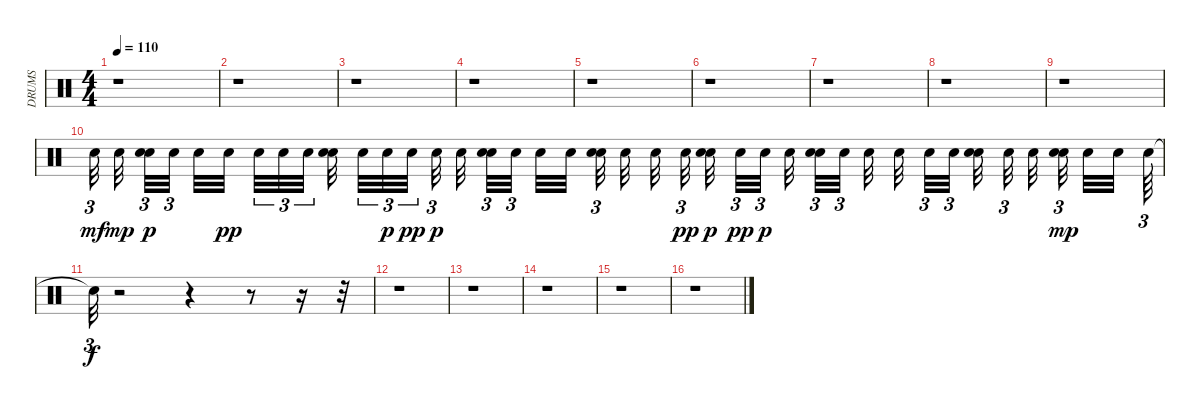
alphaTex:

\track ("DRUMS" "DRUMS") {instrument percussion}
\staff {score}
\articulation defaults
\ts (4 4)
\tempo 110
\clef neutral
\ks c
r.1{dy mf} |
r.1 |
r.1 |
r.1 |
r.1 |
r.1 |
r.1 |
r.1 |
r.1 |
"Snare (hit) 2".32{tu (3 2) beam splitsecondary} "Electric Snare (hit)".32{dy mp beam splitsecondary} ("Snare (hit) 2" "Electric Snare (hit)").32{tu (3 2) dy p} "Snare (hit) 2".32{tu (3 2) beam splitsecondary} "Electric Snare (hit)".32 "Snare (hit) 2".32{dy pp beam splitsecondary} "Electric Snare (hit)".32{tu (3 2)} "Snare (hit) 2".32{tu (3 2)} "Electric Snare (hit)".32{tu (3 2) beam splitsecondary} ("Snare (hit) 2" "Electric Snare (hit)").32 "Snare (hit) 2".32{tu (3 2)} "Electric Snare (hit)".32{tu (3 2) dy p} "Snare (hit) 2".32{tu (3 2) dy pp beam splitsecondary} "Electric Snare (hit)".32{tu (3 2) dy p beam splitsecondary} "Snare (hit) 2".32{beam splitsecondary} ("Electric Snare (hit)" "Snare (hit) 2").32{tu (3 2)} "Electric Snare (hit)".32{tu (3 2) beam splitsecondary} "Snare (hit) 2".32 "Electric Snare (hit)".32{beam splitsecondary} ("Snare (hit) 2" "Electric Snare (hit)").32{tu (3 2)} "Snare (hit) 2".32 "Electric Snare (hit)".32{beam splitsecondary} "Snare (hit) 2".32{tu (3 2) dy pp beam splitsecondary} ("Electric Snare (hit)" "Snare (hit) 2").32{dy p beam splitsecondary} "Electric Snare (hit)".32{tu (3 2) dy pp} "Snare (hit) 2".32{tu (3 2) dy p beam splitsecondary} "Electric Snare (hit)".32{beam splitsecondary} ("Snare (hit) 2" "Electric Snare (hit)").32{tu (3 2)} "Snare (hit) 2".32{tu (3 2) beam splitsecondary} "Electric Snare (hit)".32 "Snare (hit) 2".32{beam splitsecondary} "Electric Snare (hit)".32{tu (3 2)} "Snare (hit) 2".32{tu (3 2) beam splitsecondary} ("Electric Snare (hit)" "Snare (hit) 2").32{beam splitsecondary} "Electric Snare (hit)".32{tu (3 2) beam splitsecondary} "Snare (hit) 2".32{beam splitsecondary} ("Electric Snare (hit)" "Snare (hit) 2").32{tu (3 2) dy mp beam splitsecondary} "Electric Snare (hit)".32 "Snare (hit) 2".32{beam splitsecondary} "Electric Snare (hit)".64{tu (3 2)} |
"Snare (hit)"{t}.32{tu (3 2) dy f} r.2 r.4 r.8 r.16 r.32 |
r.1 |
r.1 |
r.1 |
r.1 |
r.1
